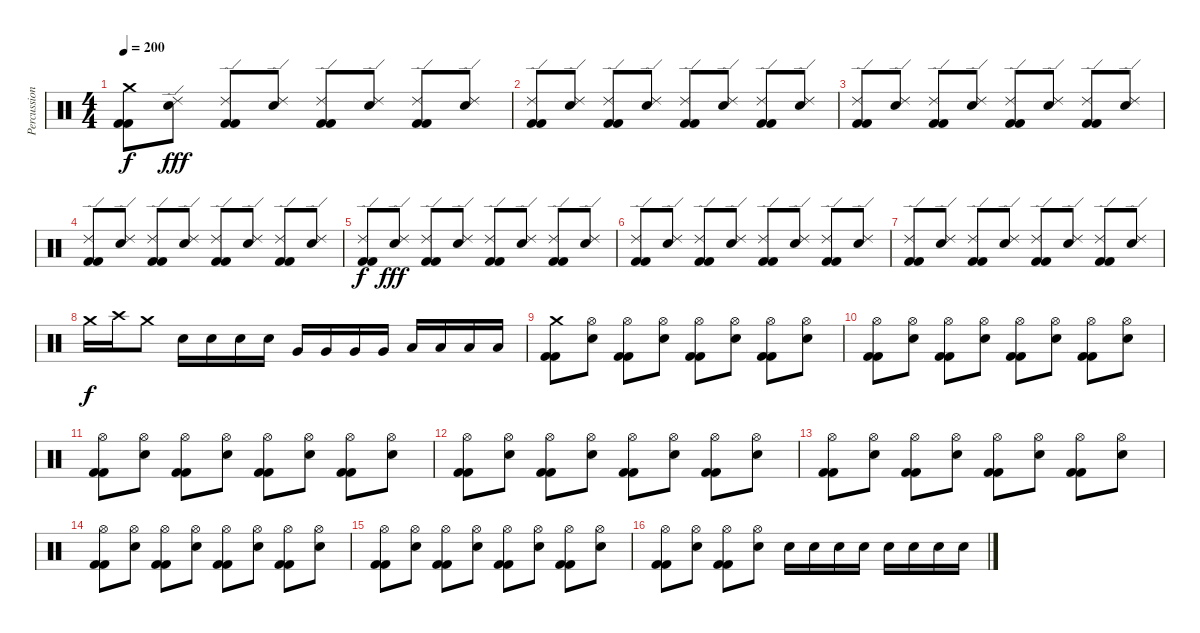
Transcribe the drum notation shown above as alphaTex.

\track ("Percussion" "Percussion") {instrument percussion}
\staff {score}
\articulation defaults
\ts (4 4)
\tempo 200
\clef neutral
\ks c
("Crash medium (hit)" "Kick (hit) 2" "Kick (hit) 2").8{dy f} ("Electric Snare (hit)" "Ride (edge) 2").8{dy fff} ("Kick (hit) 2" "Kick (hit) 2" "Ride (edge) 2").8 ("Electric Snare (hit)" "Ride (edge) 2").8 ("Kick (hit) 2" "Kick (hit) 2" "Ride (edge) 2").8 ("Electric Snare (hit)" "Ride (edge) 2").8 ("Kick (hit) 2" "Kick (hit) 2" "Ride (edge) 2").8 ("Electric Snare (hit)" "Ride (edge) 2").8 |
("Kick (hit) 2" "Kick (hit) 2" "Ride (edge) 2").8 ("Electric Snare (hit)" "Ride (edge) 2").8 ("Kick (hit) 2" "Kick (hit) 2" "Ride (edge) 2").8 ("Electric Snare (hit)" "Ride (edge) 2").8 ("Kick (hit) 2" "Kick (hit) 2" "Ride (edge) 2").8 ("Electric Snare (hit)" "Ride (edge) 2").8 ("Kick (hit) 2" "Kick (hit) 2" "Ride (edge) 2").8 ("Electric Snare (hit)" "Ride (edge) 2").8 |
("Kick (hit) 2" "Kick (hit) 2" "Ride (edge) 2").8 ("Electric Snare (hit)" "Ride (edge) 2").8 ("Kick (hit) 2" "Kick (hit) 2" "Ride (edge) 2").8 ("Electric Snare (hit)" "Ride (edge) 2").8 ("Kick (hit) 2" "Kick (hit) 2" "Ride (edge) 2").8 ("Electric Snare (hit)" "Ride (edge) 2").8 ("Kick (hit) 2" "Kick (hit) 2" "Ride (edge) 2").8 ("Electric Snare (hit)" "Ride (edge) 2").8 |
("Kick (hit) 2" "Kick (hit) 2" "Ride (edge) 2").8 ("Electric Snare (hit)" "Ride (edge) 2").8 ("Kick (hit) 2" "Kick (hit) 2" "Ride (edge) 2").8 ("Electric Snare (hit)" "Ride (edge) 2").8 ("Kick (hit) 2" "Kick (hit) 2" "Ride (edge) 2").8 ("Electric Snare (hit)" "Ride (edge) 2").8 ("Kick (hit) 2" "Kick (hit) 2" "Ride (edge) 2").8 ("Electric Snare (hit)" "Ride (edge) 2").8 |
("Ride (edge) 2" "Kick (hit) 2" "Kick (hit) 2").8{dy f} ("Electric Snare (hit)" "Ride (edge) 2").8{dy fff} ("Kick (hit) 2" "Kick (hit) 2" "Ride (edge) 2").8 ("Electric Snare (hit)" "Ride (edge) 2").8 ("Kick (hit) 2" "Kick (hit) 2" "Ride (edge) 2").8 ("Electric Snare (hit)" "Ride (edge) 2").8 ("Kick (hit) 2" "Kick (hit) 2" "Ride (edge) 2").8 ("Electric Snare (hit)" "Ride (edge) 2").8 |
("Kick (hit) 2" "Kick (hit) 2" "Ride (edge) 2").8 ("Electric Snare (hit)" "Ride (edge) 2").8 ("Kick (hit) 2" "Kick (hit) 2" "Ride (edge) 2").8 ("Electric Snare (hit)" "Ride (edge) 2").8 ("Kick (hit) 2" "Kick (hit) 2" "Ride (edge) 2").8 ("Electric Snare (hit)" "Ride (edge) 2").8 ("Kick (hit) 2" "Kick (hit) 2" "Ride (edge) 2").8 ("Electric Snare (hit)" "Ride (edge) 2").8 |
("Kick (hit) 2" "Kick (hit) 2" "Ride (edge) 2").8 ("Electric Snare (hit)" "Ride (edge) 2").8 ("Kick (hit) 2" "Kick (hit) 2" "Ride (edge) 2").8 ("Electric Snare (hit)" "Ride (edge) 2").8 ("Kick (hit) 2" "Kick (hit) 2" "Ride (edge) 2").8 ("Electric Snare (hit)" "Ride (edge) 2").8 ("Kick (hit) 2" "Kick (hit) 2" "Ride (edge) 2").8 ("Electric Snare (hit)" "Ride (edge) 2").8 |
"Crash medium (hit)".16{dy f} "Crash high (hit)".16 "Crash medium (hit)".8 "Electric Snare (hit)".16 "Electric Snare (hit)".16 "Electric Snare (hit)".16 "Electric Snare (hit)".16 "Very Low Tom (hit)".16 "Very Low Tom (hit)".16 "Very Low Tom (hit)".16 "Very Low Tom (hit)".16 "Low Tom (hit)".16 "Low Tom (hit)".16 "Low Tom (hit)".16 "Low Tom (hit)".16 |
("Crash medium (hit)" "Kick (hit) 2" "Kick (hit) 2").8 ("Electric Snare (hit)" "Hi-Hat (open)").8 ("Hi-Hat (open)" "Kick (hit) 2" "Kick (hit) 2").8 ("Electric Snare (hit)" "Hi-Hat (open)").8 ("Hi-Hat (open)" "Kick (hit) 2" "Kick (hit) 2").8 ("Electric Snare (hit)" "Hi-Hat (open)").8 ("Hi-Hat (open)" "Kick (hit) 2" "Kick (hit) 2").8 ("Electric Snare (hit)" "Hi-Hat (open)").8 |
("Hi-Hat (open)" "Kick (hit) 2" "Kick (hit) 2").8 ("Electric Snare (hit)" "Hi-Hat (open)").8 ("Hi-Hat (open)" "Kick (hit) 2" "Kick (hit) 2").8 ("Electric Snare (hit)" "Hi-Hat (open)").8 ("Hi-Hat (open)" "Kick (hit) 2" "Kick (hit) 2").8 ("Electric Snare (hit)" "Hi-Hat (open)").8 ("Hi-Hat (open)" "Kick (hit) 2" "Kick (hit) 2").8 ("Electric Snare (hit)" "Hi-Hat (open)").8 |
("Hi-Hat (open)" "Kick (hit) 2" "Kick (hit) 2").8 ("Electric Snare (hit)" "Hi-Hat (open)").8 ("Hi-Hat (open)" "Kick (hit) 2" "Kick (hit) 2").8 ("Electric Snare (hit)" "Hi-Hat (open)").8 ("Hi-Hat (open)" "Kick (hit) 2" "Kick (hit) 2").8 ("Electric Snare (hit)" "Hi-Hat (open)").8 ("Hi-Hat (open)" "Kick (hit) 2" "Kick (hit) 2").8 ("Electric Snare (hit)" "Hi-Hat (open)").8 |
("Hi-Hat (open)" "Kick (hit) 2" "Kick (hit) 2").8 ("Electric Snare (hit)" "Hi-Hat (open)").8 ("Hi-Hat (open)" "Kick (hit) 2" "Kick (hit) 2").8 ("Electric Snare (hit)" "Hi-Hat (open)").8 ("Hi-Hat (open)" "Kick (hit) 2" "Kick (hit) 2").8 ("Electric Snare (hit)" "Hi-Hat (open)").8 ("Hi-Hat (open)" "Kick (hit) 2" "Kick (hit) 2").8 ("Electric Snare (hit)" "Hi-Hat (open)").8 |
("Hi-Hat (open)" "Kick (hit) 2" "Kick (hit) 2").8 ("Electric Snare (hit)" "Hi-Hat (open)").8 ("Hi-Hat (open)" "Kick (hit) 2" "Kick (hit) 2").8 ("Electric Snare (hit)" "Hi-Hat (open)").8 ("Hi-Hat (open)" "Kick (hit) 2" "Kick (hit) 2").8 ("Electric Snare (hit)" "Hi-Hat (open)").8 ("Hi-Hat (open)" "Kick (hit) 2" "Kick (hit) 2").8 ("Electric Snare (hit)" "Hi-Hat (open)").8 |
("Hi-Hat (open)" "Kick (hit) 2" "Kick (hit) 2").8 ("Electric Snare (hit)" "Hi-Hat (open)").8 ("Hi-Hat (open)" "Kick (hit) 2" "Kick (hit) 2").8 ("Electric Snare (hit)" "Hi-Hat (open)").8 ("Hi-Hat (open)" "Kick (hit) 2" "Kick (hit) 2").8 ("Electric Snare (hit)" "Hi-Hat (open)").8 ("Hi-Hat (open)" "Kick (hit) 2" "Kick (hit) 2").8 ("Electric Snare (hit)" "Hi-Hat (open)").8 |
("Hi-Hat (open)" "Kick (hit) 2" "Kick (hit) 2").8 ("Electric Snare (hit)" "Hi-Hat (open)").8 ("Hi-Hat (open)" "Kick (hit) 2" "Kick (hit) 2").8 ("Electric Snare (hit)" "Hi-Hat (open)").8 ("Hi-Hat (open)" "Kick (hit) 2" "Kick (hit) 2").8 ("Electric Snare (hit)" "Hi-Hat (open)").8 ("Hi-Hat (open)" "Kick (hit) 2" "Kick (hit) 2").8 ("Electric Snare (hit)" "Hi-Hat (open)").8 |
("Hi-Hat (open)" "Kick (hit) 2" "Kick (hit) 2").8 ("Electric Snare (hit)" "Hi-Hat (open)").8 ("Hi-Hat (open)" "Kick (hit) 2" "Kick (hit) 2").8 ("Electric Snare (hit)" "Hi-Hat (open)").8 "Electric Snare (hit)".16 "Electric Snare (hit)".16 "Electric Snare (hit)".16 "Electric Snare (hit)".16 "Electric Snare (hit)".16 "Electric Snare (hit)".16 "Electric Snare (hit)".16 "Electric Snare (hit)".16
